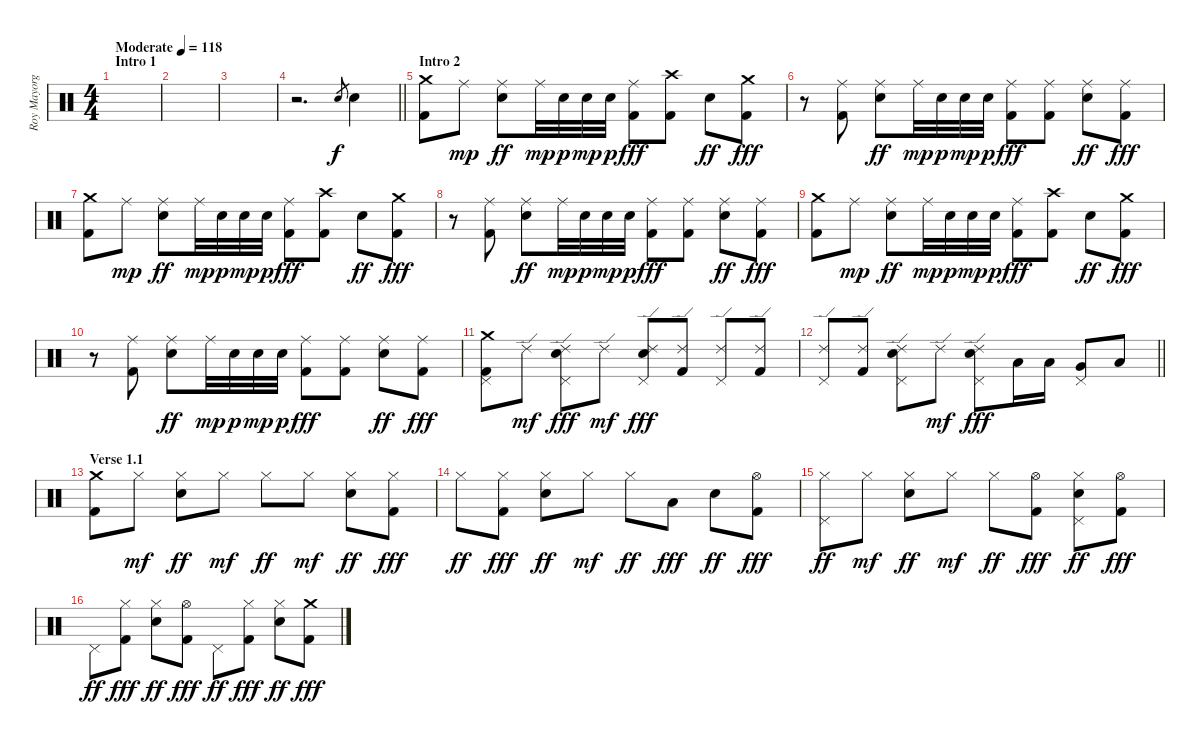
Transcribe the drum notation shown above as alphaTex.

\track ("Roy Mayorga" "Roy Mayorg") {instrument percussion}
\staff {score}
\articulation defaults
\ts (4 4)
\section ("" "Intro 1")
\tempo (118 "Moderate")
\clef neutral
\ks c
|
|
|
\barLineRight lightlight
r.2{d} "Electric Snare (hit)".8{gr} "Electric Snare (hit)".4 |
\section ("" "Intro 2")
("Crash medium (hit)" "Kick (hit) 2").8 "Ride (middle)".8{dy mp} ("Ride (middle)" "Electric Snare (hit)").8{dy ff} "Ride (middle)".32{dy mp} "Electric Snare (hit)".32{dy p} "Electric Snare (hit)".32{dy mp} "Electric Snare (hit)".32{dy p} ("Ride (middle)" "Kick (hit) 2").8{dy fff} ("Crash high (hit)" "Kick (hit) 2").8 "Electric Snare (hit)".8{dy ff} ("Crash medium (hit)" "Kick (hit) 2").8{dy fff} |
r.8 ("Ride (middle)" "Kick (hit) 2").8 ("Ride (middle)" "Electric Snare (hit)").8{dy ff} "Ride (middle)".32{dy mp} "Electric Snare (hit)".32{dy p} "Electric Snare (hit)".32{dy mp} "Electric Snare (hit)".32{dy p} ("Ride (middle)" "Kick (hit) 2").8{dy fff} ("Ride (middle)" "Kick (hit) 2").8 ("Ride (middle)" "Electric Snare (hit)").8{dy ff} ("Ride (middle)" "Kick (hit) 2").8{dy fff} |
("Crash medium (hit)" "Kick (hit) 2").8 "Ride (middle)".8{dy mp} ("Ride (middle)" "Electric Snare (hit)").8{dy ff} "Ride (middle)".32{dy mp} "Electric Snare (hit)".32{dy p} "Electric Snare (hit)".32{dy mp} "Electric Snare (hit)".32{dy p} ("Ride (middle)" "Kick (hit) 2").8{dy fff} ("Crash high (hit)" "Kick (hit) 2").8 "Electric Snare (hit)".8{dy ff} ("Crash medium (hit)" "Kick (hit) 2").8{dy fff} |
r.8 ("Ride (middle)" "Kick (hit) 2").8 ("Ride (middle)" "Electric Snare (hit)").8{dy ff} "Ride (middle)".32{dy mp} "Electric Snare (hit)".32{dy p} "Electric Snare (hit)".32{dy mp} "Electric Snare (hit)".32{dy p} ("Ride (middle)" "Kick (hit) 2").8{dy fff} ("Ride (middle)" "Kick (hit) 2").8 ("Ride (middle)" "Electric Snare (hit)").8{dy ff} ("Ride (middle)" "Kick (hit) 2").8{dy fff} |
("Crash medium (hit)" "Kick (hit) 2").8 "Ride (middle)".8{dy mp} ("Ride (middle)" "Electric Snare (hit)").8{dy ff} "Ride (middle)".32{dy mp} "Electric Snare (hit)".32{dy p} "Electric Snare (hit)".32{dy mp} "Electric Snare (hit)".32{dy p} ("Ride (middle)" "Kick (hit) 2").8{dy fff} ("Crash high (hit)" "Kick (hit) 2").8 "Electric Snare (hit)".8{dy ff} ("Crash medium (hit)" "Kick (hit) 2").8{dy fff} |
r.8 ("Ride (middle)" "Kick (hit) 2").8 ("Ride (middle)" "Electric Snare (hit)").8{dy ff} "Ride (middle)".32{dy mp} "Electric Snare (hit)".32{dy p} "Electric Snare (hit)".32{dy mp} "Electric Snare (hit)".32{dy p} ("Ride (middle)" "Kick (hit) 2").8{dy fff} ("Ride (middle)" "Kick (hit) 2").8 ("Ride (middle)" "Electric Snare (hit)").8{dy ff} ("Ride (middle)" "Kick (hit) 2").8{dy fff} |
("Crash medium (hit)" "Pedal Hi-Hat (hit)" "Kick (hit) 2").8 "Ride (edge) 2".8{dy mf} ("Ride (edge) 2" "Electric Snare (hit)" "Pedal Hi-Hat (hit)").8{dy fff} "Ride (edge) 2".8{dy mf} ("Ride (edge) 2" "Electric Snare (hit)" "Pedal Hi-Hat (hit)").8{dy fff} ("Ride (edge) 2" "Kick (hit) 2").8 ("Ride (edge) 2" "Pedal Hi-Hat (hit)").8 ("Ride (edge) 2" "Kick (hit) 2").8 |
\barLineRight lightlight
("Ride (edge) 2" "Pedal Hi-Hat (hit)").8 ("Ride (edge) 2" "Kick (hit) 2").8 ("Ride (edge) 2" "Electric Snare (hit)" "Pedal Hi-Hat (hit)").8 "Ride (edge) 2".8{dy mf} ("Ride (edge) 2" "Electric Snare (hit)" "Pedal Hi-Hat (hit)").8{dy fff} "Low Tom (hit)".16 "Low Tom (hit)".16 ("Very Low Tom (hit)" "Pedal Hi-Hat (hit)").8 "Low Floor Tom (hit)".8 |
\section ("" "Verse 1.1")
("Crash medium (hit)" "Kick (hit) 2").8 "Hi-Hat (closed)".8{dy mf} ("Hi-Hat (closed)" "Electric Snare (hit)").8{dy ff} "Hi-Hat (closed)".8{dy mf} "Hi-Hat (closed)".8{dy ff} "Hi-Hat (closed)".8{dy mf} ("Hi-Hat (closed)" "Electric Snare (hit)").8{dy ff} ("Hi-Hat (closed)" "Kick (hit) 2").8{dy fff} |
"Hi-Hat (closed)".8{dy ff} ("Hi-Hat (closed)" "Kick (hit) 2").8{dy fff} ("Hi-Hat (closed)" "Electric Snare (hit)").8{dy ff} "Hi-Hat (closed)".8{dy mf} "Hi-Hat (closed)".8{dy ff} "Low Tom (hit)".8{dy fff} "Electric Snare (hit)".8{dy ff} ("Hi-Hat (open)" "Kick (hit) 2").8{dy fff} |
("Hi-Hat (closed)" "Pedal Hi-Hat (hit)").8{dy ff} "Hi-Hat (closed)".8{dy mf} ("Hi-Hat (closed)" "Electric Snare (hit)").8{dy ff} "Hi-Hat (closed)".8{dy mf} "Hi-Hat (closed)".8{dy ff} ("Hi-Hat (open)" "Kick (hit) 2").8{dy fff} ("Hi-Hat (closed)" "Electric Snare (hit)" "Pedal Hi-Hat (hit)").8{dy ff} ("Hi-Hat (open)" "Kick (hit) 2").8{dy fff} |
"Pedal Hi-Hat (hit)".8{dy ff} ("Hi-Hat (closed)" "Kick (hit) 2").8{dy fff} ("Hi-Hat (closed)" "Electric Snare (hit)").8{dy ff} ("Hi-Hat (open)" "Kick (hit) 2").8{dy fff} "Pedal Hi-Hat (hit)".8{dy ff} ("Hi-Hat (closed)" "Kick (hit) 2").8{dy fff} ("Hi-Hat (closed)" "Electric Snare (hit)").8{dy ff} ("Crash medium (hit)" "Kick (hit) 2").8{dy fff}
